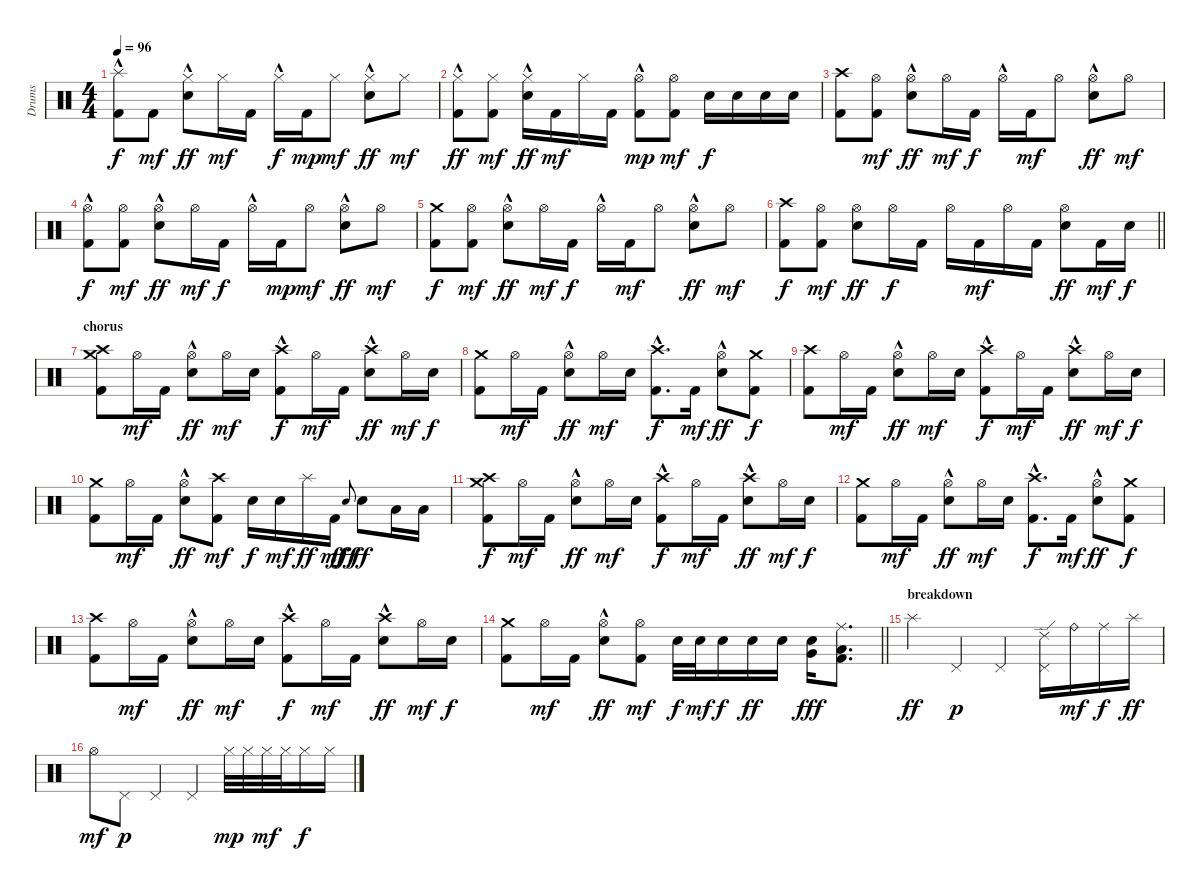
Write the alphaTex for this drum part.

\track ("Drums" "Drums") {instrument percussion}
\staff {score}
\articulation defaults
\ts (4 4)
\tempo 96
\clef neutral
\ks c
("Splash (hit)"{hac} "Kick (hit) 2").8{dy f} "Kick (hit) 2".8{dy mf} ("Hi-Hat (closed)"{hac} "Electric Snare (hit)").8{dy ff} "Hi-Hat (closed)".16{dy mf} "Kick (hit) 2".16 "Hi-Hat (closed)"{hac}.16{dy f} "Kick (hit) 2".16{dy mp} "Hi-Hat (closed)".8{dy mf} ("Hi-Hat (closed)"{hac} "Electric Snare (hit)").8{dy ff} "Hi-Hat (closed)".8{dy mf} |
("Hi-Hat (closed)"{hac} "Kick (hit) 2").8{dy ff} ("Hi-Hat (closed)" "Kick (hit) 2").8{dy mf} ("Hi-Hat (closed)"{hac} "Electric Snare (hit)").16{dy ff} "Kick (hit) 2".16{dy mf} "Hi-Hat (closed)".16 "Kick (hit) 2".16 ("Hi-Hat (open)"{hac} "Kick (hit) 2").8{dy mp} ("Hi-Hat (open)" "Kick (hit) 2").8{dy mf} "Electric Snare (hit)".16{dy f} "Electric Snare (hit)".16 "Electric Snare (hit)".16 "Electric Snare (hit)".16 |
("Crash high (hit)" "Kick (hit) 2").8 ("Hi-Hat (open)" "Kick (hit) 2").8{dy mf} ("Hi-Hat (open)"{hac} "Electric Snare (hit)").8{dy ff} "Hi-Hat (open)".16{dy mf} "Kick (hit) 2".16{dy f} "Hi-Hat (open)"{hac}.16 "Kick (hit) 2".16{dy mf} "Hi-Hat (open)".8 ("Hi-Hat (open)"{hac} "Electric Snare (hit)").8{dy ff} "Hi-Hat (open)".8{dy mf} |
("Hi-Hat (open)"{hac} "Kick (hit) 2").8{dy f} ("Hi-Hat (open)" "Kick (hit) 2").8{dy mf} ("Hi-Hat (open)"{hac} "Electric Snare (hit)").8{dy ff} "Hi-Hat (open)".16{dy mf} "Kick (hit) 2".16{dy f} "Hi-Hat (open)"{hac}.16 "Kick (hit) 2".16{dy mp} "Hi-Hat (open)".8{dy mf} ("Hi-Hat (open)"{hac} "Electric Snare (hit)").8{dy ff} "Hi-Hat (open)".8{dy mf} |
("Crash medium (hit)" "Kick (hit) 2").8{dy f} ("Hi-Hat (open)" "Kick (hit) 2").8{dy mf} ("Hi-Hat (open)"{hac} "Electric Snare (hit)").8{dy ff} "Hi-Hat (open)".16{dy mf} "Kick (hit) 2".16{dy f} "Hi-Hat (open)"{hac}.16 "Kick (hit) 2".16{dy mf} "Hi-Hat (open)".8 ("Hi-Hat (open)"{hac} "Electric Snare (hit)").8{dy ff} "Hi-Hat (open)".8{dy mf} |
\barLineRight lightlight
("Crash high (hit)" "Kick (hit) 2").8{dy f} ("Hi-Hat (open)" "Kick (hit) 2").8{dy mf} ("Hi-Hat (open)" "Electric Snare (hit)").8{dy ff} "Hi-Hat (open)".16{dy f} "Kick (hit) 2".16 "Hi-Hat (open)".16 "Kick (hit) 2".16{dy mf} "Hi-Hat (open)".16 "Kick (hit) 2".16 ("Hi-Hat (open)" "Electric Snare (hit)").8{dy ff} "Kick (hit) 2".16{dy mf} "Electric Snare (hit)".16{dy f} |
\section ("" "chorus")
("Crash medium (hit)" "Crash high (hit)" "Kick (hit) 2").8 "Hi-Hat (open)".16{dy mf} "Kick (hit) 2".16 ("Hi-Hat (open)"{hac} "Electric Snare (hit)").8{dy ff} "Hi-Hat (open)".16{dy mf} "Electric Snare (hit)".16 ("Crash high (hit)"{hac} "Kick (hit) 2").8{dy f} "Hi-Hat (open)".16{dy mf} "Kick (hit) 2".16 ("Crash high (hit)"{hac} "Electric Snare (hit)").8{dy ff} "Hi-Hat (open)".16{dy mf} "Electric Snare (hit)".16{dy f} |
("Crash medium (hit)" "Kick (hit) 2").8 "Hi-Hat (open)".16{dy mf} "Kick (hit) 2".16 ("Hi-Hat (open)"{hac} "Electric Snare (hit)").8{dy ff} "Hi-Hat (open)".16{dy mf} "Electric Snare (hit)".16 ("Crash high (hit)"{hac} "Kick (hit) 2").8{d dy f} "Kick (hit) 2".16{dy mf} ("Hi-Hat (open)"{hac} "Electric Snare (hit)").8{dy ff} ("Crash medium (hit)" "Kick (hit) 2").8{dy f} |
("Crash high (hit)" "Kick (hit) 2").8 "Hi-Hat (open)".16{dy mf} "Kick (hit) 2".16 ("Hi-Hat (open)"{hac} "Electric Snare (hit)").8{dy ff} "Hi-Hat (open)".16{dy mf} "Electric Snare (hit)".16 ("Crash high (hit)"{hac} "Kick (hit) 2").8{dy f} "Hi-Hat (open)".16{dy mf} "Kick (hit) 2".16 ("Crash high (hit)"{hac} "Electric Snare (hit)").8{dy ff} "Hi-Hat (open)".16{dy mf} "Electric Snare (hit)".16{dy f} |
("Crash medium (hit)" "Kick (hit) 2").8 "Hi-Hat (open)".16{dy mf} "Kick (hit) 2".16 ("Hi-Hat (open)"{hac} "Electric Snare (hit)").8{dy ff} ("Crash high (hit)" "Kick (hit) 2").8{dy mf} "Electric Snare (hit)".16{dy f} "Electric Snare (hit)".16{dy mf} "Splash (hit)".16{dy ff} "Kick (hit) 2".16{dy mf} "Electric Snare (hit)".8{gr onbeat dy fff} "Electric Snare (hit)".8{dy ff} "Low Tom (hit)".16 "Low Tom (hit)".16 |
("Crash medium (hit)" "Crash high (hit)" "Kick (hit) 2").8{dy f} "Hi-Hat (open)".16{dy mf} "Kick (hit) 2".16 ("Hi-Hat (open)"{hac} "Electric Snare (hit)").8{dy ff} "Hi-Hat (open)".16{dy mf} "Electric Snare (hit)".16 ("Crash high (hit)"{hac} "Kick (hit) 2").8{dy f} "Hi-Hat (open)".16{dy mf} "Kick (hit) 2".16 ("Crash high (hit)"{hac} "Electric Snare (hit)").8{dy ff} "Hi-Hat (open)".16{dy mf} "Electric Snare (hit)".16{dy f} |
("Crash medium (hit)" "Kick (hit) 2").8 "Hi-Hat (open)".16{dy mf} "Kick (hit) 2".16 ("Hi-Hat (open)"{hac} "Electric Snare (hit)").8{dy ff} "Hi-Hat (open)".16{dy mf} "Electric Snare (hit)".16 ("Crash high (hit)"{hac} "Kick (hit) 2").8{d dy f} "Kick (hit) 2".16{dy mf} ("Hi-Hat (open)"{hac} "Electric Snare (hit)").8{dy ff} ("Crash medium (hit)" "Kick (hit) 2").8{dy f} |
("Crash high (hit)" "Kick (hit) 2").8 "Hi-Hat (open)".16{dy mf} "Kick (hit) 2".16 ("Hi-Hat (open)"{hac} "Electric Snare (hit)").8{dy ff} "Hi-Hat (open)".16{dy mf} "Electric Snare (hit)".16 ("Crash high (hit)"{hac} "Kick (hit) 2").8{dy f} "Hi-Hat (open)".16{dy mf} "Kick (hit) 2".16 ("Crash high (hit)"{hac} "Electric Snare (hit)").8{dy ff} "Hi-Hat (open)".16{dy mf} "Electric Snare (hit)".16{dy f} |
\barLineRight lightlight
("Crash medium (hit)" "Kick (hit) 2").8 "Hi-Hat (open)".16{dy mf} "Kick (hit) 2".16 ("Hi-Hat (open)"{hac} "Electric Snare (hit)").8{dy ff} ("Hi-Hat (open)" "Kick (hit) 2").8{dy mf} "Electric Snare (hit)".32{dy f} "Electric Snare (hit)".32{dy mf} "Electric Snare (hit)".16{dy f} "Electric Snare (hit)".16{dy ff} "Electric Snare (hit)".16 ("Very Low Tom (hit)" "Electric Snare (hit)").16{dy fff} ("Low Tom (hit)" "Ride (middle)" "Kick (hit) 2").8{d} |
\section ("" "breakdown")
"Splash (hit)".4{dy ff} "Pedal Hi-Hat (hit)".4{dy p} "Pedal Hi-Hat (hit)".4 ("Ride (edge) 2" "Pedal Hi-Hat (hit)").16 "Ride (bell)".16{dy mf} "Ride (middle)".16{dy f} "Splash (hit)".16{dy ff} |
"Hi-Hat (open)".8{dy mf} "Pedal Hi-Hat (hit)".8{dy p} "Pedal Hi-Hat (hit)".4 "Pedal Hi-Hat (hit)".4 "Hi-Hat (closed)".32{dy mp} "Hi-Hat (closed)".32 "Hi-Hat (closed)".32{dy mf} "Hi-Hat (closed)".32 "Hi-Hat (closed)".16{dy f} "Hi-Hat (closed)".16
